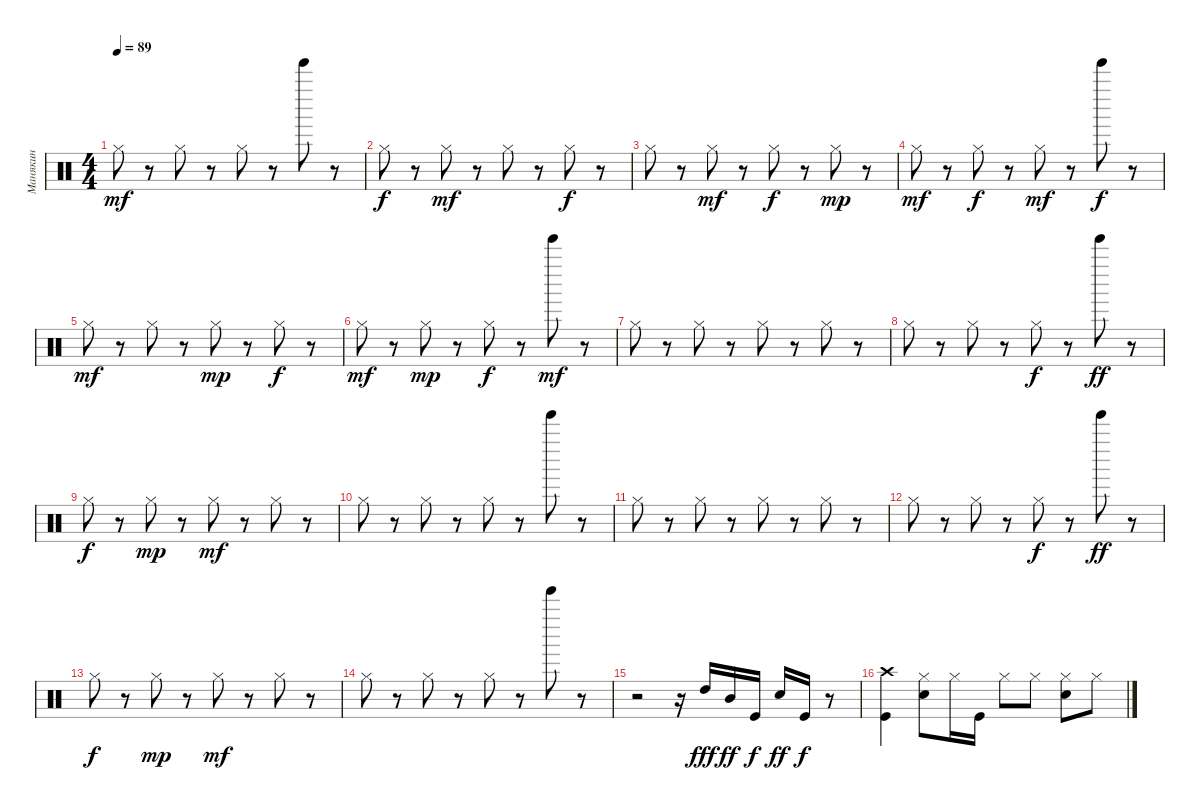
\track ("Манякин" "Манякин") {instrument percussion}
\staff {score}
\articulation defaults
\ts (4 4)
\tempo 89
\clef neutral
\ks c "Hi-Hat (closed)".8{dy mf}
r.8 "Hi-Hat (closed)".8 r.8 "Hi-Hat (closed)".8 r.8 "Tinkle Bell (hit)".8 r.8 |
"Hi-Hat (closed)".8{dy f} r.8 "Hi-Hat (closed)".8{dy mf} r.8 "Hi-Hat (closed)".8 r.8 "Hi-Hat (closed)".8{dy f} r.8 |
"Hi-Hat (closed)".8 r.8 "Hi-Hat (closed)".8{dy mf} r.8 "Hi-Hat (closed)".8{dy f} r.8 "Hi-Hat (closed)".8{dy mp} r.8 |
"Hi-Hat (closed)".8{dy mf} r.8 "Hi-Hat (closed)".8{dy f} r.8 "Hi-Hat (closed)".8{dy mf} r.8 "Tinkle Bell (hit)".8{dy f} r.8 |
"Hi-Hat (closed)".8{dy mf} r.8 "Hi-Hat (closed)".8 r.8 "Hi-Hat (closed)".8{dy mp} r.8 "Hi-Hat (closed)".8{dy f} r.8 |
"Hi-Hat (closed)".8{dy mf} r.8 "Hi-Hat (closed)".8{dy mp} r.8 "Hi-Hat (closed)".8{dy f} r.8 "Tinkle Bell (hit)".8{dy mf} r.8 |
"Hi-Hat (closed)".8 r.8 "Hi-Hat (closed)".8 r.8 "Hi-Hat (closed)".8 r.8 "Hi-Hat (closed)".8 r.8 |
"Hi-Hat (closed)".8 r.8 "Hi-Hat (closed)".8 r.8 "Hi-Hat (closed)".8{dy f} r.8 "Tinkle Bell (hit)".8{dy ff} r.8 |
"Hi-Hat (closed)".8{dy f} r.8 "Hi-Hat (closed)".8{dy mp} r.8 "Hi-Hat (closed)".8{dy mf} r.8 "Hi-Hat (closed)".8 r.8 |
"Hi-Hat (closed)".8 r.8 "Hi-Hat (closed)".8 r.8 "Hi-Hat (closed)".8 r.8 "Tinkle Bell (hit)".8 r.8 |
"Hi-Hat (closed)".8 r.8 "Hi-Hat (closed)".8 r.8 "Hi-Hat (closed)".8 r.8 "Hi-Hat (closed)".8 r.8 |
"Hi-Hat (closed)".8 r.8 "Hi-Hat (closed)".8 r.8 "Hi-Hat (closed)".8{dy f} r.8 "Tinkle Bell (hit)".8{dy ff} r.8 |
"Hi-Hat (closed)".8{dy f} r.8 "Hi-Hat (closed)".8{dy mp} r.8 "Hi-Hat (closed)".8{dy mf} r.8 "Hi-Hat (closed)".8 r.8 |
"Hi-Hat (closed)".8 r.8 "Hi-Hat (closed)".8 r.8 "Hi-Hat (closed)".8 r.8 "Tinkle Bell (hit)".8 r.8 |
r.2 r.16 "High Tom (hit)".16{dy fff} "Mid Tom (hit)".16{dy ff} "Kick (hit)".16{dy f} "Electric Snare (hit)".16{dy ff} "Kick (hit)".16{dy f} r.8 |
("Kick (hit)" "Crash high (hit)").4 ("Electric Snare (hit)" "Hi-Hat (closed)").8 "Hi-Hat (closed)".16 "Kick (hit)".16 "Hi-Hat (closed)".8 "Hi-Hat (closed)".8 ("Electric Snare (hit)" "Hi-Hat (closed)").8 "Hi-Hat (closed)".8
